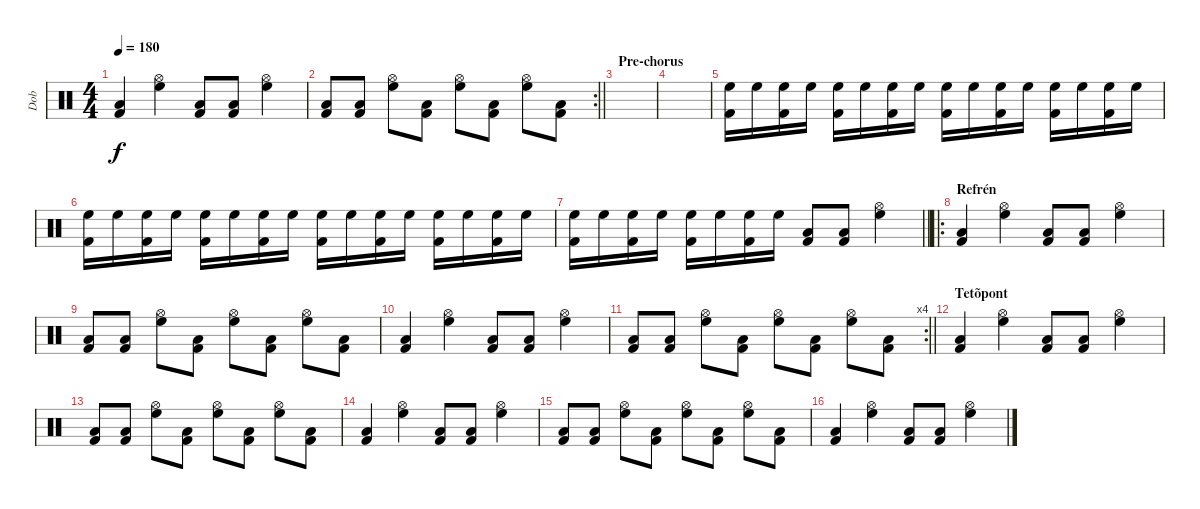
\track ("Dob" "Dob") {instrument percussion}
\staff {score}
\articulation defaults
\ts (4 4)
\tempo 180
\clef neutral
\ks c
("Low Tom (hit)" "Kick (hit) 2").4{dy f} ("Hi-Hat (open)" "High Floor Tom (hit)").4 ("Low Tom (hit)" "Kick (hit) 2").8 ("Low Tom (hit)" "Kick (hit) 2").8 ("Hi-Hat (open)" "High Floor Tom (hit)").4 |
\rc 2
\barLineRight lightlight
("Low Tom (hit)" "Kick (hit) 2").8 ("Low Tom (hit)" "Kick (hit) 2").8 ("Hi-Hat (open)" "High Floor Tom (hit)").8 ("Low Tom (hit)" "Kick (hit) 2").8 ("Hi-Hat (open)" "High Floor Tom (hit)").8 ("Low Tom (hit)" "Kick (hit) 2").8 ("Hi-Hat (open)" "High Floor Tom (hit)").8 ("Low Tom (hit)" "Kick (hit) 2").8 |
\section ("" "Pre-chorus")
|
|
("Kick (hit) 2" "High Floor Tom (hit)").16 "High Floor Tom (hit)".16 ("Kick (hit) 2" "High Floor Tom (hit)").16 "High Floor Tom (hit)".16 ("Kick (hit) 2" "High Floor Tom (hit)").16 "High Floor Tom (hit)".16 ("Kick (hit) 2" "High Floor Tom (hit)").16 "High Floor Tom (hit)".16 ("Kick (hit) 2" "High Floor Tom (hit)").16 "High Floor Tom (hit)".16 ("Kick (hit) 2" "High Floor Tom (hit)").16 "High Floor Tom (hit)".16 ("Kick (hit) 2" "High Floor Tom (hit)").16 "High Floor Tom (hit)".16 ("Kick (hit) 2" "High Floor Tom (hit)").16 "High Floor Tom (hit)".16 |
("Kick (hit) 2" "High Floor Tom (hit)").16 "High Floor Tom (hit)".16 ("Kick (hit) 2" "High Floor Tom (hit)").16 "High Floor Tom (hit)".16 ("Kick (hit) 2" "High Floor Tom (hit)").16 "High Floor Tom (hit)".16 ("Kick (hit) 2" "High Floor Tom (hit)").16 "High Floor Tom (hit)".16 ("Kick (hit) 2" "High Floor Tom (hit)").16 "High Floor Tom (hit)".16 ("Kick (hit) 2" "High Floor Tom (hit)").16 "High Floor Tom (hit)".16 ("Kick (hit) 2" "High Floor Tom (hit)").16 "High Floor Tom (hit)".16 ("Kick (hit) 2" "High Floor Tom (hit)").16 "High Floor Tom (hit)".16 |
\barLineRight lightlight
("Kick (hit) 2" "High Floor Tom (hit)").16 "High Floor Tom (hit)".16 ("Kick (hit) 2" "High Floor Tom (hit)").16 "High Floor Tom (hit)".16 ("Kick (hit) 2" "High Floor Tom (hit)").16 "High Floor Tom (hit)".16 ("Kick (hit) 2" "High Floor Tom (hit)").16 "High Floor Tom (hit)".16 ("Low Tom (hit)" "Kick (hit) 2").8 ("Low Tom (hit)" "Kick (hit) 2").8 ("Hi-Hat (open)" "High Floor Tom (hit)").4 |
\ro
\section ("" "Refrén")
("Low Tom (hit)" "Kick (hit) 2").4 ("Hi-Hat (open)" "High Floor Tom (hit)").4 ("Low Tom (hit)" "Kick (hit) 2").8 ("Low Tom (hit)" "Kick (hit) 2").8 ("Hi-Hat (open)" "High Floor Tom (hit)").4 |
("Low Tom (hit)" "Kick (hit) 2").8 ("Low Tom (hit)" "Kick (hit) 2").8 ("Hi-Hat (open)" "High Floor Tom (hit)").8 ("Low Tom (hit)" "Kick (hit) 2").8 ("Hi-Hat (open)" "High Floor Tom (hit)").8 ("Low Tom (hit)" "Kick (hit) 2").8 ("Hi-Hat (open)" "High Floor Tom (hit)").8 ("Low Tom (hit)" "Kick (hit) 2").8 |
("Low Tom (hit)" "Kick (hit) 2").4 ("Hi-Hat (open)" "High Floor Tom (hit)").4 ("Low Tom (hit)" "Kick (hit) 2").8 ("Low Tom (hit)" "Kick (hit) 2").8 ("Hi-Hat (open)" "High Floor Tom (hit)").4 |
\rc 4
\barLineRight lightlight
("Low Tom (hit)" "Kick (hit) 2").8 ("Low Tom (hit)" "Kick (hit) 2").8 ("Hi-Hat (open)" "High Floor Tom (hit)").8 ("Low Tom (hit)" "Kick (hit) 2").8 ("Hi-Hat (open)" "High Floor Tom (hit)").8 ("Low Tom (hit)" "Kick (hit) 2").8 ("Hi-Hat (open)" "High Floor Tom (hit)").8 ("Low Tom (hit)" "Kick (hit) 2").8 |
\section ("" "Tetõpont")
("Low Tom (hit)" "Kick (hit) 2").4 ("Hi-Hat (open)" "High Floor Tom (hit)").4 ("Low Tom (hit)" "Kick (hit) 2").8 ("Low Tom (hit)" "Kick (hit) 2").8 ("Hi-Hat (open)" "High Floor Tom (hit)").4 |
("Low Tom (hit)" "Kick (hit) 2").8 ("Low Tom (hit)" "Kick (hit) 2").8 ("Hi-Hat (open)" "High Floor Tom (hit)").8 ("Low Tom (hit)" "Kick (hit) 2").8 ("Hi-Hat (open)" "High Floor Tom (hit)").8 ("Low Tom (hit)" "Kick (hit) 2").8 ("Hi-Hat (open)" "High Floor Tom (hit)").8 ("Low Tom (hit)" "Kick (hit) 2").8 |
("Low Tom (hit)" "Kick (hit) 2").4 ("Hi-Hat (open)" "High Floor Tom (hit)").4 ("Low Tom (hit)" "Kick (hit) 2").8 ("Low Tom (hit)" "Kick (hit) 2").8 ("Hi-Hat (open)" "High Floor Tom (hit)").4 |
("Low Tom (hit)" "Kick (hit) 2").8 ("Low Tom (hit)" "Kick (hit) 2").8 ("Hi-Hat (open)" "High Floor Tom (hit)").8 ("Low Tom (hit)" "Kick (hit) 2").8 ("Hi-Hat (open)" "High Floor Tom (hit)").8 ("Low Tom (hit)" "Kick (hit) 2").8 ("Hi-Hat (open)" "High Floor Tom (hit)").8 ("Low Tom (hit)" "Kick (hit) 2").8 |
("Low Tom (hit)" "Kick (hit) 2").4 ("Hi-Hat (open)" "High Floor Tom (hit)").4 ("Low Tom (hit)" "Kick (hit) 2").8 ("Low Tom (hit)" "Kick (hit) 2").8 ("Hi-Hat (open)" "High Floor Tom (hit)").4
